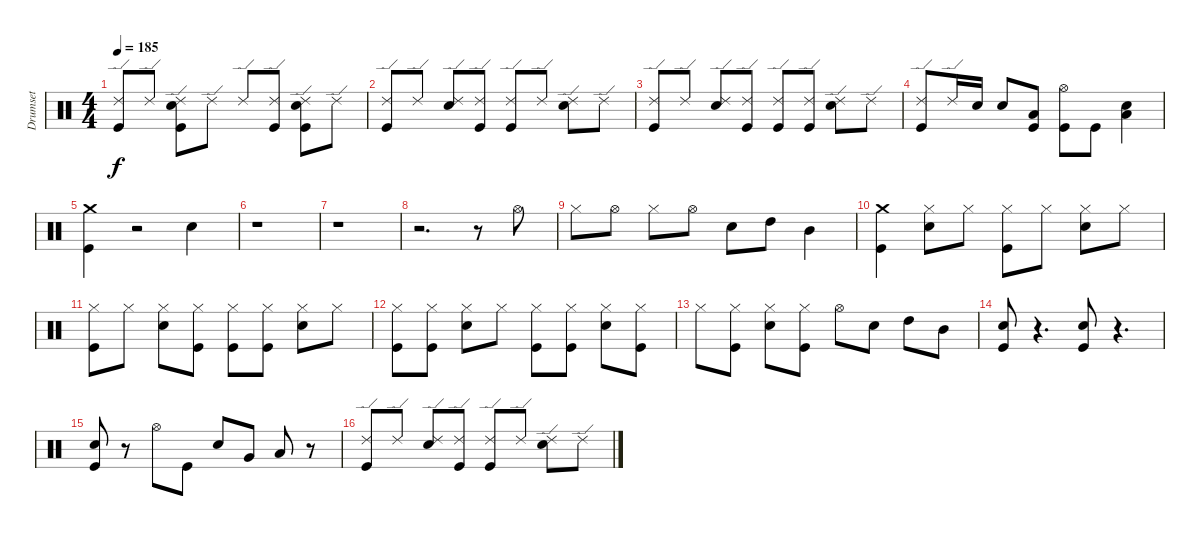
\track ("Drumset" "Drumset") {instrument percussion}
\staff {score}
\articulation defaults
\ts (4 4)
\tempo 185
\clef neutral
\ks c
("Ride (edge) 2" "Kick (hit)").8{dy f} "Ride (edge) 2".8 ("Ride (edge) 2" "Snare (hit) 2" "Kick (hit)").8 "Ride (edge) 2".8 "Ride (edge) 2".8 ("Ride (edge) 2" "Kick (hit)").8 ("Ride (edge) 2" "Snare (hit) 2" "Kick (hit)").8 "Ride (edge) 2".8 |
("Ride (edge) 2" "Kick (hit)").8 "Ride (edge) 2".8 ("Ride (edge) 2" "Snare (hit) 2").8 ("Ride (edge) 2" "Kick (hit)").8 ("Ride (edge) 2" "Kick (hit)").8 "Ride (edge) 2".8 ("Ride (edge) 2" "Snare (hit) 2").8 "Ride (edge) 2".8 |
("Ride (edge) 2" "Kick (hit)").8 "Ride (edge) 2".8 ("Ride (edge) 2" "Snare (hit) 2").8 ("Ride (edge) 2" "Kick (hit)").8 ("Ride (edge) 2" "Kick (hit)").8 ("Ride (edge) 2" "Kick (hit)").8 ("Ride (edge) 2" "Snare (hit) 2").8 "Ride (edge) 2".8 |
("Ride (edge) 2" "Kick (hit)").8 "Ride (edge) 2".16 "Snare (hit) 2".16 "Snare (hit) 2".8 ("Low Tom (hit)" "Kick (hit)").8 ("Hi-Hat (open)" "Kick (hit)").8 "Kick (hit)".8 ("Low Tom (hit)" "Snare (hit) 2").4 |
("Crash medium (hit)" "Kick (hit)").4 r.2 "Snare (hit) 2".4 |
r.1 |
r.1 |
r.2{d} r.8 "Hi-Hat (open)".8 |
"Hi-Hat (closed)".8 "Hi-Hat (open)".8 "Hi-Hat (closed)".8 "Hi-Hat (open)".8 "Snare (hit) 2".8 "High Tom (hit)".8 "Mid Tom (hit)".4 |
("Crash medium (hit)" "Kick (hit)").4 ("Hi-Hat (closed)" "Snare (hit) 2").8 "Hi-Hat (closed)".8 ("Hi-Hat (closed)" "Kick (hit)").8 "Hi-Hat (closed)".8 ("Hi-Hat (closed)" "Snare (hit) 2").8 "Hi-Hat (closed)".8 |
("Hi-Hat (closed)" "Kick (hit)").8 "Hi-Hat (closed)".8 ("Hi-Hat (closed)" "Snare (hit) 2").8 ("Hi-Hat (closed)" "Kick (hit)").8 ("Hi-Hat (closed)" "Kick (hit)").8 ("Hi-Hat (closed)" "Kick (hit)").8 ("Hi-Hat (closed)" "Snare (hit) 2").8 "Hi-Hat (closed)".8 |
("Hi-Hat (closed)" "Kick (hit)").8 ("Hi-Hat (closed)" "Kick (hit)").8 ("Hi-Hat (closed)" "Snare (hit) 2").8 "Hi-Hat (closed)".8 ("Hi-Hat (closed)" "Kick (hit)").8 ("Hi-Hat (closed)" "Kick (hit)").8 ("Hi-Hat (closed)" "Snare (hit) 2").8 ("Hi-Hat (closed)" "Kick (hit)").8 |
"Hi-Hat (closed)".8 ("Hi-Hat (closed)" "Kick (hit)").8 ("Hi-Hat (closed)" "Snare (hit) 2").8 ("Hi-Hat (closed)" "Kick (hit)").8 "Hi-Hat (open)".8 "Snare (hit) 2".8 "High Tom (hit)".8 "Mid Tom (hit)".8 |
("Kick (hit)" "Snare (hit) 2").8 r.4{d} ("Kick (hit)" "Snare (hit) 2").8 r.4{d} |
("Snare (hit) 2" "Kick (hit)").8 r.8 "Hi-Hat (open)".8 "Kick (hit)".8 "Snare (hit) 2".8 "Very Low Tom (hit)".8 "Low Floor Tom (hit)".8 r.8 |
("Kick (hit)" "Ride (edge) 2").8 "Ride (edge) 2".8 ("Snare (hit) 2" "Ride (edge) 2").8 ("Kick (hit)" "Ride (edge) 2").8 ("Kick (hit)" "Ride (edge) 2").8 "Ride (edge) 2".8 ("Snare (hit) 2" "Ride (edge) 2").8 "Ride (edge) 2".8
